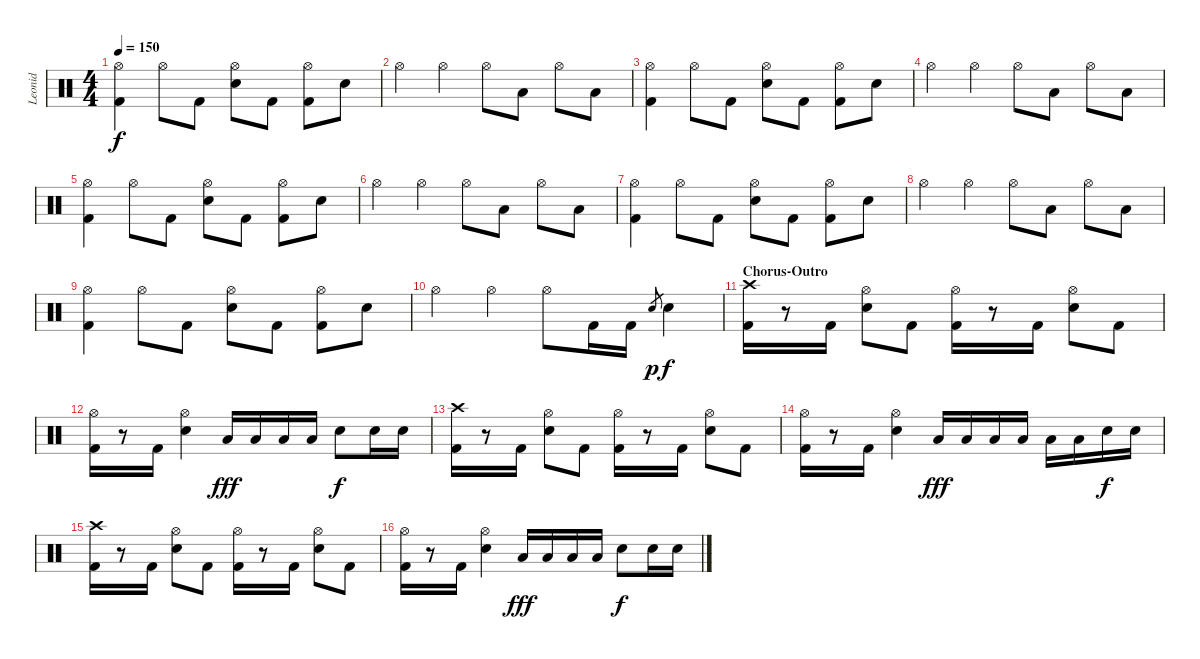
\track ("Leonid" "Leonid") {instrument percussion}
\staff {score}
\articulation defaults
\ts (4 4)
\tempo 150
\clef neutral
\ks c
("Hi-Hat (open)" "Kick (hit) 2").4{dy f} "Hi-Hat (open)".8 "Kick (hit) 2".8 ("Hi-Hat (open)" "Electric Snare (hit)").8 "Kick (hit) 2".8 ("Hi-Hat (open)" "Kick (hit) 2").8 "Electric Snare (hit)".8 |
"Hi-Hat (open)".4 "Hi-Hat (open)".4 "Hi-Hat (open)".8 "Low Tom (hit)".8 "Hi-Hat (open)".8 "Low Tom (hit)".8 |
("Hi-Hat (open)" "Kick (hit) 2").4 "Hi-Hat (open)".8 "Kick (hit) 2".8 ("Hi-Hat (open)" "Electric Snare (hit)").8 "Kick (hit) 2".8 ("Hi-Hat (open)" "Kick (hit) 2").8 "Electric Snare (hit)".8 |
"Hi-Hat (open)".4 "Hi-Hat (open)".4 "Hi-Hat (open)".8 "Low Tom (hit)".8 "Hi-Hat (open)".8 "Low Tom (hit)".8 |
("Hi-Hat (open)" "Kick (hit) 2").4 "Hi-Hat (open)".8 "Kick (hit) 2".8 ("Hi-Hat (open)" "Electric Snare (hit)").8 "Kick (hit) 2".8 ("Hi-Hat (open)" "Kick (hit) 2").8 "Electric Snare (hit)".8 |
"Hi-Hat (open)".4 "Hi-Hat (open)".4 "Hi-Hat (open)".8 "Low Tom (hit)".8 "Hi-Hat (open)".8 "Low Tom (hit)".8 |
("Hi-Hat (open)" "Kick (hit) 2").4 "Hi-Hat (open)".8 "Kick (hit) 2".8 ("Hi-Hat (open)" "Electric Snare (hit)").8 "Kick (hit) 2".8 ("Hi-Hat (open)" "Kick (hit) 2").8 "Electric Snare (hit)".8 |
"Hi-Hat (open)".4 "Hi-Hat (open)".4 "Hi-Hat (open)".8 "Low Tom (hit)".8 "Hi-Hat (open)".8 "Low Tom (hit)".8 |
("Hi-Hat (open)" "Kick (hit) 2").4 "Hi-Hat (open)".8 "Kick (hit) 2".8 ("Hi-Hat (open)" "Electric Snare (hit)").8 "Kick (hit) 2".8 ("Hi-Hat (open)" "Kick (hit) 2").8 "Electric Snare (hit)".8 |
"Hi-Hat (open)".4 "Hi-Hat (open)".4 "Hi-Hat (open)".8 "Kick (hit) 2".16 "Kick (hit) 2".16 "Electric Snare (hit)".8{gr dy p} "Electric Snare (hit)".4{dy f} |
\section ("" "Chorus-Outro")
("Crash high (hit)" "Kick (hit) 2").16 r.8 "Kick (hit) 2".16 ("Hi-Hat (open)" "Electric Snare (hit)").8 "Kick (hit) 2".8 ("Hi-Hat (open)" "Kick (hit) 2").16 r.8 "Kick (hit) 2".16 ("Hi-Hat (open)" "Electric Snare (hit)").8 "Kick (hit) 2".8 |
("Hi-Hat (open)" "Kick (hit) 2").16 r.8 "Kick (hit) 2".16 ("Hi-Hat (open)" "Electric Snare (hit)").4 "Low Tom (hit)".16{dy fff} "Low Tom (hit)".16 "Low Tom (hit)".16 "Low Tom (hit)".16 "Electric Snare (hit)".8{dy f} "Electric Snare (hit)".16 "Electric Snare (hit)".16 |
("Crash high (hit)" "Kick (hit) 2").16 r.8 "Kick (hit) 2".16 ("Hi-Hat (open)" "Electric Snare (hit)").8 "Kick (hit) 2".8 ("Hi-Hat (open)" "Kick (hit) 2").16 r.8 "Kick (hit) 2".16 ("Hi-Hat (open)" "Electric Snare (hit)").8 "Kick (hit) 2".8 |
("Hi-Hat (open)" "Kick (hit) 2").16 r.8 "Kick (hit) 2".16 ("Hi-Hat (open)" "Electric Snare (hit)").4 "Low Tom (hit)".16{dy fff} "Low Tom (hit)".16 "Low Tom (hit)".16 "Low Floor Tom (hit)".16 "Low Floor Tom (hit)".16 "Low Floor Tom (hit)".16 "Electric Snare (hit)".16{dy f} "Electric Snare (hit)".16 |
("Crash high (hit)" "Kick (hit) 2").16 r.8 "Kick (hit) 2".16 ("Hi-Hat (open)" "Electric Snare (hit)").8 "Kick (hit) 2".8 ("Hi-Hat (open)" "Kick (hit) 2").16 r.8 "Kick (hit) 2".16 ("Hi-Hat (open)" "Electric Snare (hit)").8 "Kick (hit) 2".8 |
("Hi-Hat (open)" "Kick (hit) 2").16 r.8 "Kick (hit) 2".16 ("Hi-Hat (open)" "Electric Snare (hit)").4 "Low Tom (hit)".16{dy fff} "Low Tom (hit)".16 "Low Tom (hit)".16 "Low Tom (hit)".16 "Electric Snare (hit)".8{dy f} "Electric Snare (hit)".16 "Electric Snare (hit)".16
